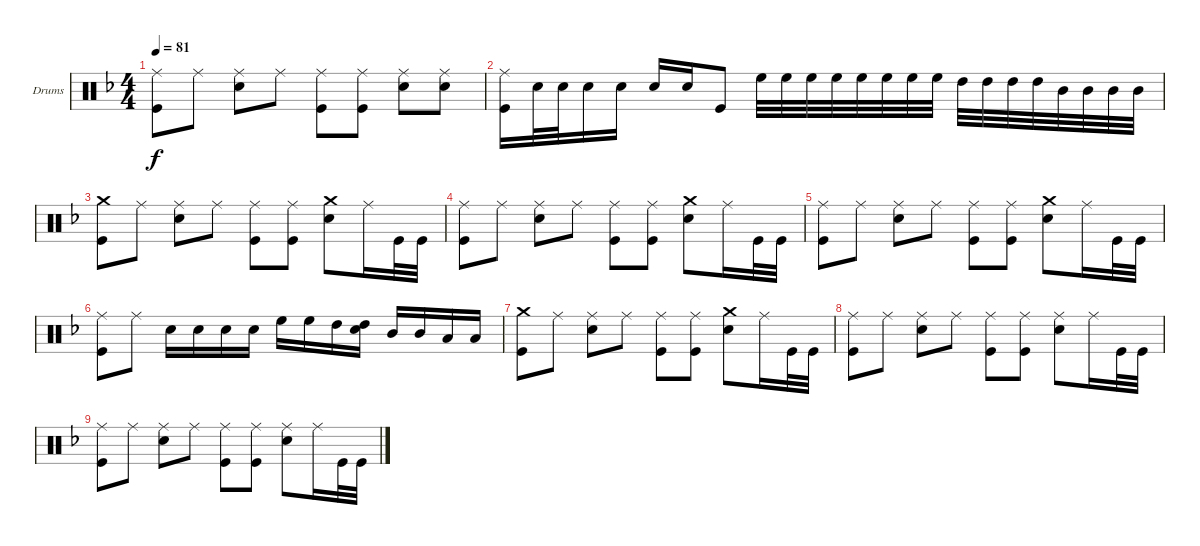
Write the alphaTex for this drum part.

\bracketExtendMode groupsimilarinstruments
\firstSystemTrackNameOrientation horizontal
\otherSystemsTrackNameOrientation horizontal
\track ("Vinny Appice" "Drums") {instrument percussion}
\staff {score}
\articulation defaults
\ts (4 4)
\tempo 81
\clef neutral
\ks dminor
("Ride (middle)" "Kick (hit)").8{dy f} "Ride (middle)".8 ("Ride (middle)" "Snare (hit) 2").8 "Ride (middle)".8 ("Ride (middle)" "Kick (hit)").8 ("Ride (middle)" "Kick (hit)").8 ("Ride (middle)" "Snare (hit) 2").8 ("Snare (hit) 2" "Ride (middle)").8 |
("Ride (middle)" "Kick (hit)").16 "Snare (hit) 2".32 "Snare (hit) 2".32 "Snare (hit) 2".16 "Snare (hit) 2".16 "Snare (hit) 2".16 "Snare (hit) 2".16 "Kick (hit)".8 "High Floor Tom (hit)".32 "High Floor Tom (hit)".32 "High Floor Tom (hit)".32 "High Floor Tom (hit)".32 "High Floor Tom (hit)".32 "High Floor Tom (hit)".32 "High Floor Tom (hit)".32 "High Floor Tom (hit)".32 "High Tom (hit)".32 "High Tom (hit)".32 "High Tom (hit)".32 "High Tom (hit)".32 "Mid Tom (hit)".32 "Mid Tom (hit)".32 "Mid Tom (hit)".32 "Mid Tom (hit)".32 |
("Crash medium (hit)" "Kick (hit)").8 "Ride (middle)".8 ("Ride (middle)" "Snare (hit) 2").8 "Ride (middle)".8 ("Ride (middle)" "Kick (hit)").8 ("Ride (middle)" "Kick (hit)").8 ("Crash medium (hit)" "Snare (hit) 2").8 "Ride (middle)".16 "Kick (hit)".32 "Kick (hit)".32 |
("Ride (middle)" "Kick (hit)").8 "Ride (middle)".8 ("Ride (middle)" "Snare (hit) 2").8 "Ride (middle)".8 ("Ride (middle)" "Kick (hit)").8 ("Ride (middle)" "Kick (hit)").8 ("Crash medium (hit)" "Snare (hit) 2").8 "Ride (middle)".16 "Kick (hit)".32 "Kick (hit)".32 |
("Ride (middle)" "Kick (hit)").8 "Ride (middle)".8 ("Ride (middle)" "Snare (hit) 2").8 "Ride (middle)".8 ("Ride (middle)" "Kick (hit)").8 ("Ride (middle)" "Kick (hit)").8 ("Crash medium (hit)" "Snare (hit) 2").8 "Ride (middle)".16 "Kick (hit)".32 "Kick (hit)".32 |
("Kick (hit)" "Ride (middle)").8 "Ride (middle)".8 "Snare (hit) 2".16 "Snare (hit) 2".16 "Snare (hit) 2".16 "Snare (hit) 2".16 "High Floor Tom (hit)".16 "High Floor Tom (hit)".16 "High Tom (hit)".16 ("Snare (hit) 2" "High Tom (hit)").16 "Mid Tom (hit)".16 "Mid Tom (hit)".16 "Low Tom (hit)".16 "Low Tom (hit)".16 |
("Crash medium (hit)" "Kick (hit)").8 "Ride (middle)".8 ("Ride (middle)" "Snare (hit) 2").8 "Ride (middle)".8 ("Ride (middle)" "Kick (hit)").8 ("Ride (middle)" "Kick (hit)").8 ("Crash medium (hit)" "Snare (hit) 2").8 "Ride (middle)".16 "Kick (hit)".32 "Kick (hit)".32 |
("Ride (middle)" "Kick (hit)").8 "Ride (middle)".8 ("Ride (middle)" "Snare (hit) 2").8 "Ride (middle)".8 ("Ride (middle)" "Kick (hit)").8 ("Ride (middle)" "Kick (hit)").8 ("Ride (middle)" "Snare (hit) 2").8 "Ride (middle)".16 "Kick (hit)".32 "Kick (hit)".32 |
("Ride (middle)" "Kick (hit)").8 "Ride (middle)".8 ("Ride (middle)" "Snare (hit) 2").8 "Ride (middle)".8 ("Ride (middle)" "Kick (hit)").8 ("Ride (middle)" "Kick (hit)").8 ("Ride (middle)" "Snare (hit) 2").8 "Ride (middle)".16 "Kick (hit)".32 "Kick (hit)".32
